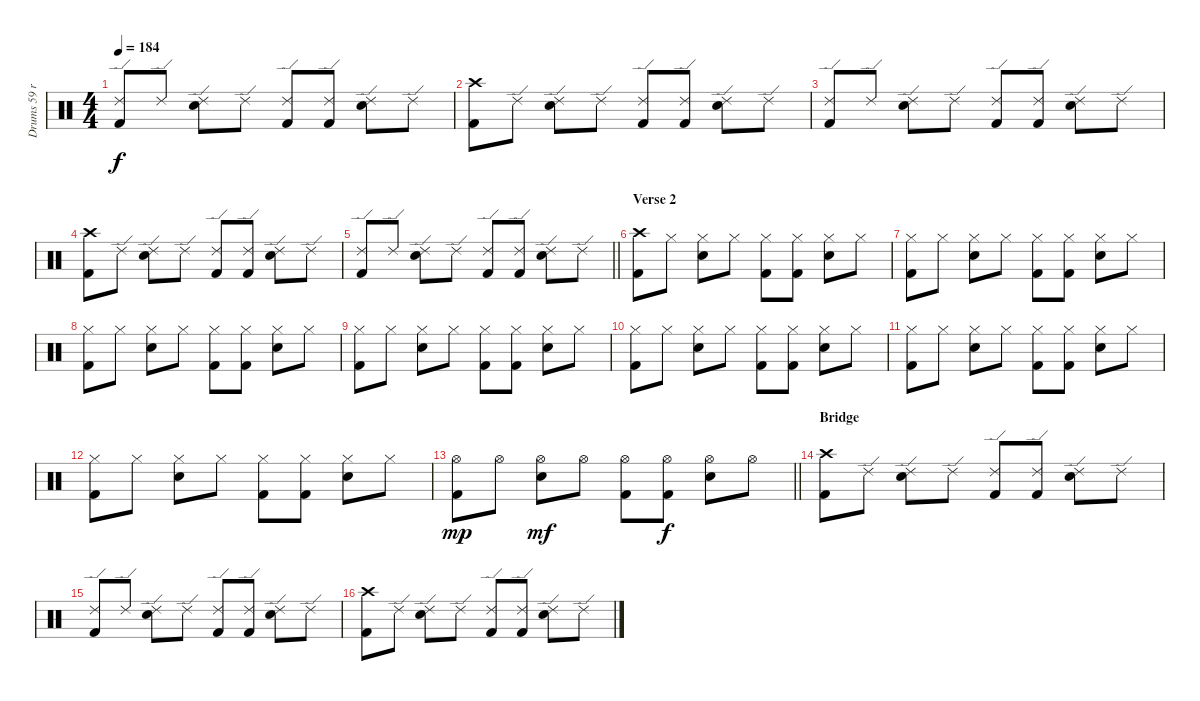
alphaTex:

\track ("Drums 59 ride" "Drums 59 r") {mute instrument percussion}
\staff {score}
\articulation defaults
\ts (4 4)
\tempo 184
\clef neutral
\ks c
("Ride (edge) 2" "Kick (hit) 2").8{dy f} "Ride (edge) 2".8 ("Ride (edge) 2" "Snare (hit) 2").8 "Ride (edge) 2".8 ("Ride (edge) 2" "Kick (hit) 2").8 ("Ride (edge) 2" "Kick (hit) 2").8 ("Ride (edge) 2" "Snare (hit) 2").8 "Ride (edge) 2".8 |
("Crash high (hit)" "Kick (hit) 2").8 "Ride (edge) 2".8 ("Ride (edge) 2" "Snare (hit) 2").8 "Ride (edge) 2".8 ("Ride (edge) 2" "Kick (hit) 2").8 ("Ride (edge) 2" "Kick (hit) 2").8 ("Ride (edge) 2" "Snare (hit) 2").8 "Ride (edge) 2".8 |
("Ride (edge) 2" "Kick (hit) 2").8 "Ride (edge) 2".8 ("Ride (edge) 2" "Snare (hit) 2").8 "Ride (edge) 2".8 ("Ride (edge) 2" "Kick (hit) 2").8 ("Ride (edge) 2" "Kick (hit) 2").8 ("Ride (edge) 2" "Snare (hit) 2").8 "Ride (edge) 2".8 |
("Crash high (hit)" "Kick (hit) 2").8 "Ride (edge) 2".8 ("Ride (edge) 2" "Snare (hit) 2").8 "Ride (edge) 2".8 ("Ride (edge) 2" "Kick (hit) 2").8 ("Ride (edge) 2" "Kick (hit) 2").8 ("Ride (edge) 2" "Snare (hit) 2").8 "Ride (edge) 2".8 |
\barLineRight lightlight
("Ride (edge) 2" "Kick (hit) 2").8 "Ride (edge) 2".8 ("Ride (edge) 2" "Snare (hit) 2").8 "Ride (edge) 2".8 ("Ride (edge) 2" "Kick (hit) 2").8 ("Ride (edge) 2" "Kick (hit) 2").8 ("Ride (edge) 2" "Snare (hit) 2").8 "Ride (edge) 2".8 |
\section ("" "Verse 2")
("Crash high (hit)" "Kick (hit) 2").8 "Hi-Hat (closed)".8 ("Hi-Hat (closed)" "Snare (hit) 2").8 "Hi-Hat (closed)".8 ("Hi-Hat (closed)" "Kick (hit) 2").8 ("Hi-Hat (closed)" "Kick (hit) 2").8 ("Hi-Hat (closed)" "Snare (hit) 2").8 "Hi-Hat (closed)".8 |
("Hi-Hat (closed)" "Kick (hit) 2").8 "Hi-Hat (closed)".8 ("Hi-Hat (closed)" "Snare (hit) 2").8 "Hi-Hat (closed)".8 ("Hi-Hat (closed)" "Kick (hit) 2").8 ("Hi-Hat (closed)" "Kick (hit) 2").8 ("Hi-Hat (closed)" "Snare (hit) 2").8 "Hi-Hat (closed)".8 |
("Hi-Hat (closed)" "Kick (hit) 2").8 "Hi-Hat (closed)".8 ("Hi-Hat (closed)" "Snare (hit) 2").8 "Hi-Hat (closed)".8 ("Hi-Hat (closed)" "Kick (hit) 2").8 ("Hi-Hat (closed)" "Kick (hit) 2").8 ("Hi-Hat (closed)" "Snare (hit) 2").8 "Hi-Hat (closed)".8 |
("Hi-Hat (closed)" "Kick (hit) 2").8 "Hi-Hat (closed)".8 ("Hi-Hat (closed)" "Snare (hit) 2").8 "Hi-Hat (closed)".8 ("Hi-Hat (closed)" "Kick (hit) 2").8 ("Hi-Hat (closed)" "Kick (hit) 2").8 ("Hi-Hat (closed)" "Snare (hit) 2").8 "Hi-Hat (closed)".8 |
("Hi-Hat (closed)" "Kick (hit) 2").8 "Hi-Hat (closed)".8 ("Hi-Hat (closed)" "Snare (hit) 2").8 "Hi-Hat (closed)".8 ("Hi-Hat (closed)" "Kick (hit) 2").8 ("Hi-Hat (closed)" "Kick (hit) 2").8 ("Hi-Hat (closed)" "Snare (hit) 2").8 "Hi-Hat (closed)".8 |
("Hi-Hat (closed)" "Kick (hit) 2").8 "Hi-Hat (closed)".8 ("Hi-Hat (closed)" "Snare (hit) 2").8 "Hi-Hat (closed)".8 ("Hi-Hat (closed)" "Kick (hit) 2").8 ("Hi-Hat (closed)" "Kick (hit) 2").8 ("Hi-Hat (closed)" "Snare (hit) 2").8 "Hi-Hat (closed)".8 |
("Hi-Hat (closed)" "Kick (hit) 2").8 "Hi-Hat (closed)".8 ("Hi-Hat (closed)" "Snare (hit) 2").8 "Hi-Hat (closed)".8 ("Hi-Hat (closed)" "Kick (hit) 2").8 ("Hi-Hat (closed)" "Kick (hit) 2").8 ("Hi-Hat (closed)" "Snare (hit) 2").8 "Hi-Hat (closed)".8 |
\barLineRight lightlight
("Hi-Hat (open)" "Kick (hit) 2").8{dy mp} "Hi-Hat (open)".8 ("Hi-Hat (open)" "Snare (hit) 2").8{dy mf} "Hi-Hat (open)".8 ("Hi-Hat (open)" "Kick (hit) 2").8 ("Hi-Hat (open)" "Kick (hit) 2").8{dy f} ("Hi-Hat (open)" "Snare (hit) 2").8 "Hi-Hat (open)".8 |
\section ("" "Bridge")
("Crash high (hit)" "Kick (hit) 2").8 "Ride (edge) 2".8 ("Ride (edge) 2" "Snare (hit) 2").8 "Ride (edge) 2".8 ("Ride (edge) 2" "Kick (hit) 2").8 ("Ride (edge) 2" "Kick (hit) 2").8 ("Ride (edge) 2" "Snare (hit) 2").8 "Ride (edge) 2".8 |
("Ride (edge) 2" "Kick (hit) 2").8 "Ride (edge) 2".8 ("Ride (edge) 2" "Snare (hit) 2").8 "Ride (edge) 2".8 ("Ride (edge) 2" "Kick (hit) 2").8 ("Ride (edge) 2" "Kick (hit) 2").8 ("Ride (edge) 2" "Snare (hit) 2").8 "Ride (edge) 2".8 |
("Crash high (hit)" "Kick (hit) 2").8 "Ride (edge) 2".8 ("Ride (edge) 2" "Snare (hit) 2").8 "Ride (edge) 2".8 ("Ride (edge) 2" "Kick (hit) 2").8 ("Ride (edge) 2" "Kick (hit) 2").8 ("Ride (edge) 2" "Snare (hit) 2").8 "Ride (edge) 2".8
